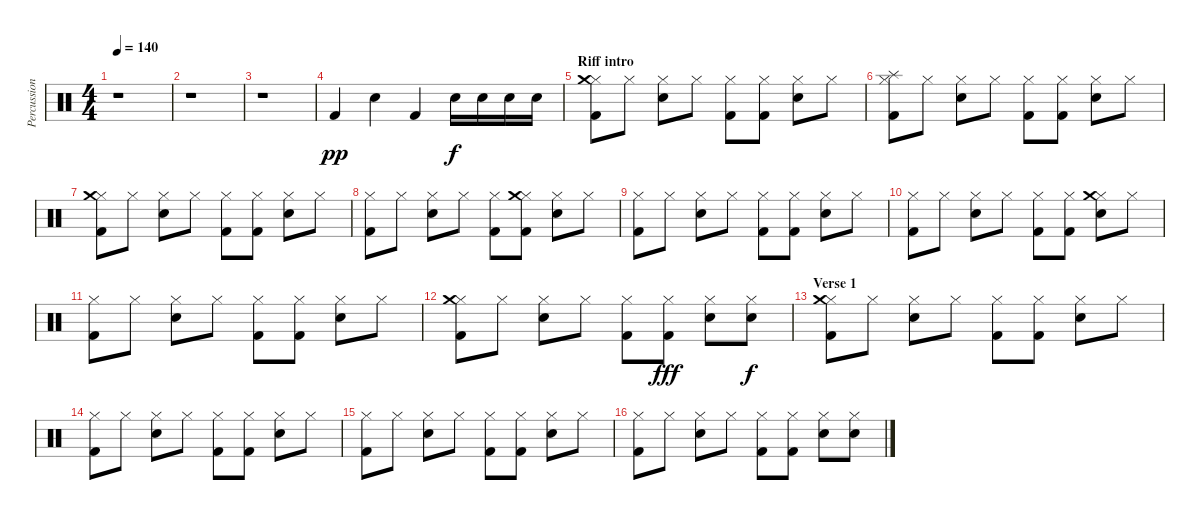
\track ("Percussions" "Percussion") {instrument percussion}
\staff {score}
\articulation defaults
\ts (4 4)
\tempo 140
\clef neutral
\ks c
r.1{dy pp} |
r.1 |
r.1 |
"Kick (hit) 2".4 "Electric Snare (hit)".4 "Kick (hit) 2".4 "Electric Snare (hit)".16{dy f} "Electric Snare (hit)".16 "Electric Snare (hit)".16 "Electric Snare (hit)".16 |
\section ("" "Riff intro")
("Hi-Hat (closed)" "Crash medium (hit)" "Kick (hit) 2").8 "Hi-Hat (closed)".8 ("Hi-Hat (closed)" "Electric Snare (hit)").8 "Hi-Hat (closed)".8 ("Hi-Hat (closed)" "Kick (hit) 2").8 ("Hi-Hat (closed)" "Kick (hit) 2").8 ("Hi-Hat (closed)" "Electric Snare (hit)").8 "Hi-Hat (closed)".8 |
("Hi-Hat (closed)" "Splash (hit)" "Kick (hit) 2").8 "Hi-Hat (closed)".8 ("Hi-Hat (closed)" "Electric Snare (hit)").8 "Hi-Hat (closed)".8 ("Hi-Hat (closed)" "Kick (hit) 2").8 ("Hi-Hat (closed)" "Kick (hit) 2").8 ("Hi-Hat (closed)" "Electric Snare (hit)").8 "Hi-Hat (closed)".8 |
("Hi-Hat (closed)" "Crash medium (hit)" "Kick (hit) 2").8 "Hi-Hat (closed)".8 ("Hi-Hat (closed)" "Electric Snare (hit)").8 "Hi-Hat (closed)".8 ("Hi-Hat (closed)" "Kick (hit) 2").8 ("Hi-Hat (closed)" "Kick (hit) 2").8 ("Hi-Hat (closed)" "Electric Snare (hit)").8 "Hi-Hat (closed)".8 |
("Hi-Hat (closed)" "Kick (hit) 2").8 "Hi-Hat (closed)".8 ("Hi-Hat (closed)" "Electric Snare (hit)").8 "Hi-Hat (closed)".8 ("Hi-Hat (closed)" "Kick (hit) 2").8 ("Hi-Hat (closed)" "Crash medium (hit)" "Kick (hit) 2").8 ("Hi-Hat (closed)" "Electric Snare (hit)").8 "Hi-Hat (closed)".8 |
("Hi-Hat (closed)" "Kick (hit) 2").8 "Hi-Hat (closed)".8 ("Hi-Hat (closed)" "Electric Snare (hit)").8 "Hi-Hat (closed)".8 ("Hi-Hat (closed)" "Kick (hit) 2").8 ("Hi-Hat (closed)" "Kick (hit) 2").8 ("Hi-Hat (closed)" "Electric Snare (hit)").8 "Hi-Hat (closed)".8 |
("Hi-Hat (closed)" "Kick (hit) 2").8 "Hi-Hat (closed)".8 ("Hi-Hat (closed)" "Electric Snare (hit)").8 "Hi-Hat (closed)".8 ("Hi-Hat (closed)" "Kick (hit) 2").8 ("Hi-Hat (closed)" "Kick (hit) 2").8 ("Hi-Hat (closed)" "Crash medium (hit)" "Electric Snare (hit)").8 "Hi-Hat (closed)".8 |
("Hi-Hat (closed)" "Kick (hit) 2").8 "Hi-Hat (closed)".8 ("Hi-Hat (closed)" "Electric Snare (hit)").8 "Hi-Hat (closed)".8 ("Hi-Hat (closed)" "Kick (hit) 2").8 ("Hi-Hat (closed)" "Kick (hit) 2").8 ("Hi-Hat (closed)" "Electric Snare (hit)").8 "Hi-Hat (closed)".8 |
("Hi-Hat (closed)" "Crash medium (hit)" "Kick (hit) 2").8 "Hi-Hat (closed)".8 ("Hi-Hat (closed)" "Electric Snare (hit)").8 "Hi-Hat (closed)".8 ("Hi-Hat (closed)" "Kick (hit) 2").8 ("Hi-Hat (closed)" "Kick (hit) 2").8{dy fff} ("Hi-Hat (closed)" "Electric Snare (hit)").8 ("Hi-Hat (closed)" "Electric Snare (hit)").8{dy f} |
\section ("" "Verse 1")
("Hi-Hat (closed)" "Crash medium (hit)" "Kick (hit) 2").8 "Hi-Hat (closed)".8 ("Hi-Hat (closed)" "Electric Snare (hit)").8 "Hi-Hat (closed)".8 ("Hi-Hat (closed)" "Kick (hit) 2").8 ("Hi-Hat (closed)" "Kick (hit) 2").8 ("Hi-Hat (closed)" "Electric Snare (hit)").8 "Hi-Hat (closed)".8 |
("Hi-Hat (closed)" "Kick (hit) 2").8 "Hi-Hat (closed)".8 ("Hi-Hat (closed)" "Electric Snare (hit)").8 "Hi-Hat (closed)".8 ("Hi-Hat (closed)" "Kick (hit) 2").8 ("Hi-Hat (closed)" "Kick (hit) 2").8 ("Hi-Hat (closed)" "Electric Snare (hit)").8 "Hi-Hat (closed)".8 |
("Hi-Hat (closed)" "Kick (hit) 2").8 "Hi-Hat (closed)".8 ("Hi-Hat (closed)" "Electric Snare (hit)").8 "Hi-Hat (closed)".8 ("Hi-Hat (closed)" "Kick (hit) 2").8 ("Hi-Hat (closed)" "Kick (hit) 2").8 ("Hi-Hat (closed)" "Electric Snare (hit)").8 "Hi-Hat (closed)".8 |
("Hi-Hat (closed)" "Kick (hit) 2").8 "Hi-Hat (closed)".8 ("Hi-Hat (closed)" "Electric Snare (hit)").8 "Hi-Hat (closed)".8 ("Hi-Hat (closed)" "Kick (hit) 2").8 ("Hi-Hat (closed)" "Kick (hit) 2").8 ("Hi-Hat (closed)" "Electric Snare (hit)").8 ("Hi-Hat (closed)" "Electric Snare (hit)").8
